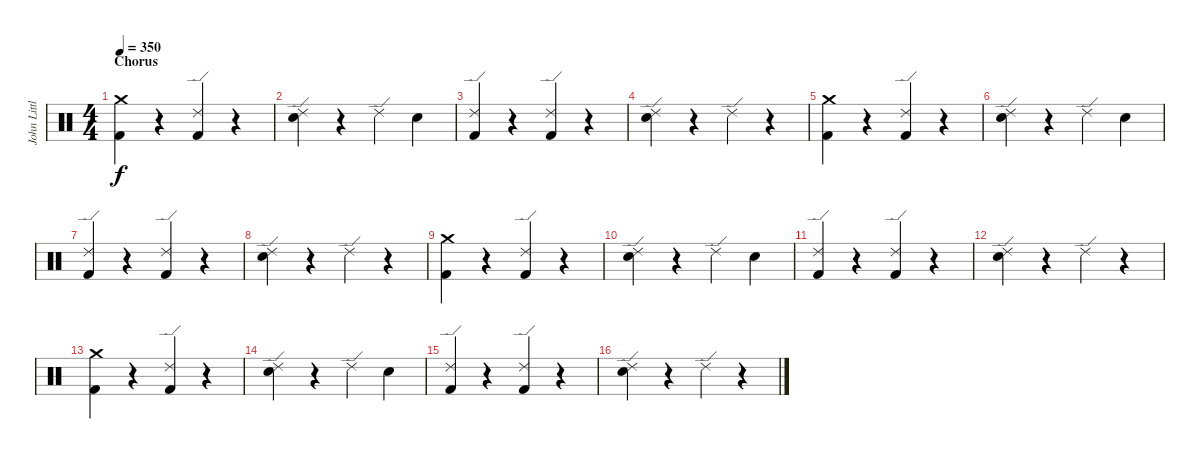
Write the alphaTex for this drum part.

\track ("John Littler - Drums" "John Littl") {instrument percussion}
\staff {score}
\articulation defaults
\ts (4 4)
\section ("" "Chorus")
\tempo 350
\clef neutral
\ks c
("Crash medium (hit)" "Kick (hit) 2").4{dy f} r.4 ("Ride (edge) 2" "Kick (hit) 2").4 r.4 |
("Ride (edge) 2" "Snare (hit) 2").4 r.4 "Ride (edge) 2".4 "Snare (hit) 2".4 |
("Ride (edge) 2" "Kick (hit) 2").4 r.4 ("Ride (edge) 2" "Kick (hit) 2").4 r.4 |
("Ride (edge) 2" "Snare (hit) 2").4 r.4 "Ride (edge) 2".4 r.4 |
("Crash medium (hit)" "Kick (hit) 2").4 r.4 ("Ride (edge) 2" "Kick (hit) 2").4 r.4 |
("Ride (edge) 2" "Snare (hit) 2").4 r.4 "Ride (edge) 2".4 "Snare (hit) 2".4 |
("Ride (edge) 2" "Kick (hit) 2").4 r.4 ("Ride (edge) 2" "Kick (hit) 2").4 r.4 |
("Ride (edge) 2" "Snare (hit) 2").4 r.4 "Ride (edge) 2".4 r.4 |
("Crash medium (hit)" "Kick (hit) 2").4 r.4 ("Ride (edge) 2" "Kick (hit) 2").4 r.4 |
("Ride (edge) 2" "Snare (hit) 2").4 r.4 "Ride (edge) 2".4 "Snare (hit) 2".4 |
("Ride (edge) 2" "Kick (hit) 2").4 r.4 ("Ride (edge) 2" "Kick (hit) 2").4 r.4 |
("Ride (edge) 2" "Snare (hit) 2").4 r.4 "Ride (edge) 2".4 r.4 |
("Crash medium (hit)" "Kick (hit) 2").4 r.4 ("Ride (edge) 2" "Kick (hit) 2").4 r.4 |
("Ride (edge) 2" "Snare (hit) 2").4 r.4 "Ride (edge) 2".4 "Snare (hit) 2".4 |
("Ride (edge) 2" "Kick (hit) 2").4 r.4 ("Ride (edge) 2" "Kick (hit) 2").4 r.4 |
("Ride (edge) 2" "Snare (hit) 2").4 r.4 "Ride (edge) 2".4 r.4
